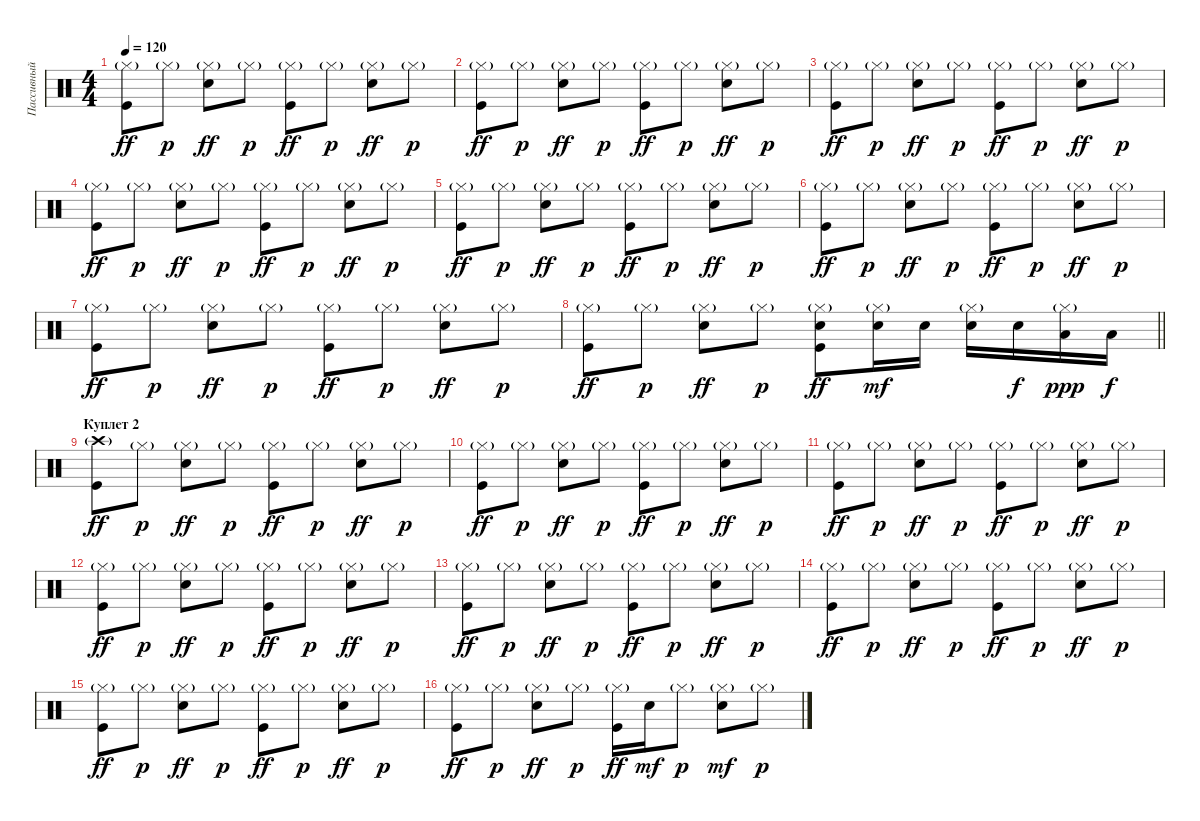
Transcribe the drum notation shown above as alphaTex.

\track ("Пассивный ударник" "Пассивный ") {instrument percussion}
\staff {score}
\articulation defaults
\ts (4 4)
\tempo 120
\clef neutral
\ks c
("Hi-Hat (closed)"{g} "Kick (hit)").8{dy ff} "Hi-Hat (closed)"{g}.8{dy p} ("Hi-Hat (closed)"{g} "Electric Snare (hit)").8{dy ff} "Hi-Hat (closed)"{g}.8{dy p} ("Hi-Hat (closed)"{g} "Kick (hit)").8{dy ff} "Hi-Hat (closed)"{g}.8{dy p} ("Hi-Hat (closed)"{g} "Electric Snare (hit)").8{dy ff} "Hi-Hat (closed)"{g}.8{dy p} |
("Hi-Hat (closed)"{g} "Kick (hit)").8{dy ff} "Hi-Hat (closed)"{g}.8{dy p} ("Hi-Hat (closed)"{g} "Electric Snare (hit)").8{dy ff} "Hi-Hat (closed)"{g}.8{dy p} ("Hi-Hat (closed)"{g} "Kick (hit)").8{dy ff} "Hi-Hat (closed)"{g}.8{dy p} ("Hi-Hat (closed)"{g} "Electric Snare (hit)").8{dy ff} "Hi-Hat (closed)"{g}.8{dy p} |
("Hi-Hat (closed)"{g} "Kick (hit)").8{dy ff} "Hi-Hat (closed)"{g}.8{dy p} ("Hi-Hat (closed)"{g} "Electric Snare (hit)").8{dy ff} "Hi-Hat (closed)"{g}.8{dy p} ("Hi-Hat (closed)"{g} "Kick (hit)").8{dy ff} "Hi-Hat (closed)"{g}.8{dy p} ("Hi-Hat (closed)"{g} "Electric Snare (hit)").8{dy ff} "Hi-Hat (closed)"{g}.8{dy p} |
("Hi-Hat (closed)"{g} "Kick (hit)").8{dy ff} "Hi-Hat (closed)"{g}.8{dy p} ("Hi-Hat (closed)"{g} "Electric Snare (hit)").8{dy ff} "Hi-Hat (closed)"{g}.8{dy p} ("Hi-Hat (closed)"{g} "Kick (hit)").8{dy ff} "Hi-Hat (closed)"{g}.8{dy p} ("Hi-Hat (closed)"{g} "Electric Snare (hit)").8{dy ff} "Hi-Hat (closed)"{g}.8{dy p} |
("Hi-Hat (closed)"{g} "Kick (hit)").8{dy ff} "Hi-Hat (closed)"{g}.8{dy p} ("Hi-Hat (closed)"{g} "Electric Snare (hit)").8{dy ff} "Hi-Hat (closed)"{g}.8{dy p} ("Hi-Hat (closed)"{g} "Kick (hit)").8{dy ff} "Hi-Hat (closed)"{g}.8{dy p} ("Hi-Hat (closed)"{g} "Electric Snare (hit)").8{dy ff} "Hi-Hat (closed)"{g}.8{dy p} |
("Hi-Hat (closed)"{g} "Kick (hit)").8{dy ff} "Hi-Hat (closed)"{g}.8{dy p} ("Hi-Hat (closed)"{g} "Electric Snare (hit)").8{dy ff} "Hi-Hat (closed)"{g}.8{dy p} ("Hi-Hat (closed)"{g} "Kick (hit)").8{dy ff} "Hi-Hat (closed)"{g}.8{dy p} ("Hi-Hat (closed)"{g} "Electric Snare (hit)").8{dy ff} "Hi-Hat (closed)"{g}.8{dy p} |
("Hi-Hat (closed)"{g} "Kick (hit)").8{dy ff} "Hi-Hat (closed)"{g}.8{dy p} ("Hi-Hat (closed)"{g} "Electric Snare (hit)").8{dy ff} "Hi-Hat (closed)"{g}.8{dy p} ("Hi-Hat (closed)"{g} "Kick (hit)").8{dy ff} "Hi-Hat (closed)"{g}.8{dy p} ("Hi-Hat (closed)"{g} "Electric Snare (hit)").8{dy ff} "Hi-Hat (closed)"{g}.8{dy p} |
\barLineRight lightlight
("Hi-Hat (closed)"{g} "Kick (hit)").8{dy ff} "Hi-Hat (closed)"{g}.8{dy p} ("Hi-Hat (closed)"{g} "Electric Snare (hit)").8{dy ff} "Hi-Hat (closed)"{g}.8{dy p} ("Hi-Hat (closed)"{g} "Electric Snare (hit)" "Kick (hit)").8{dy ff} ("Hi-Hat (closed)"{g} "Electric Snare (hit)").16{dy mf} "Electric Snare (hit)".16 ("Hi-Hat (closed)"{g} "Electric Snare (hit)").16 "Electric Snare (hit)".16{dy f} ("Hi-Hat (closed)"{g} "Low Tom (hit)").16{dy ppp} "Low Tom (hit)".16{dy f} |
\section ("" "Куплет 2")
("Crash high (hit)"{g} "Kick (hit)").8{dy ff} "Hi-Hat (closed)"{g}.8{dy p} ("Hi-Hat (closed)"{g} "Electric Snare (hit)").8{dy ff} "Hi-Hat (closed)"{g}.8{dy p} ("Hi-Hat (closed)"{g} "Kick (hit)").8{dy ff} "Hi-Hat (closed)"{g}.8{dy p} ("Hi-Hat (closed)"{g} "Electric Snare (hit)").8{dy ff} "Hi-Hat (closed)"{g}.8{dy p} |
("Hi-Hat (closed)"{g} "Kick (hit)").8{dy ff} "Hi-Hat (closed)"{g}.8{dy p} ("Hi-Hat (closed)"{g} "Electric Snare (hit)").8{dy ff} "Hi-Hat (closed)"{g}.8{dy p} ("Hi-Hat (closed)"{g} "Kick (hit)").8{dy ff} "Hi-Hat (closed)"{g}.8{dy p} ("Hi-Hat (closed)"{g} "Electric Snare (hit)").8{dy ff} "Hi-Hat (closed)"{g}.8{dy p} |
("Hi-Hat (closed)"{g} "Kick (hit)").8{dy ff} "Hi-Hat (closed)"{g}.8{dy p} ("Hi-Hat (closed)"{g} "Electric Snare (hit)").8{dy ff} "Hi-Hat (closed)"{g}.8{dy p} ("Hi-Hat (closed)"{g} "Kick (hit)").8{dy ff} "Hi-Hat (closed)"{g}.8{dy p} ("Hi-Hat (closed)"{g} "Electric Snare (hit)").8{dy ff} "Hi-Hat (closed)"{g}.8{dy p} |
("Hi-Hat (closed)"{g} "Kick (hit)").8{dy ff} "Hi-Hat (closed)"{g}.8{dy p} ("Hi-Hat (closed)"{g} "Electric Snare (hit)").8{dy ff} "Hi-Hat (closed)"{g}.8{dy p} ("Hi-Hat (closed)"{g} "Kick (hit)").8{dy ff} "Hi-Hat (closed)"{g}.8{dy p} ("Hi-Hat (closed)"{g} "Electric Snare (hit)").8{dy ff} "Hi-Hat (closed)"{g}.8{dy p} |
("Hi-Hat (closed)"{g} "Kick (hit)").8{dy ff} "Hi-Hat (closed)"{g}.8{dy p} ("Hi-Hat (closed)"{g} "Electric Snare (hit)").8{dy ff} "Hi-Hat (closed)"{g}.8{dy p} ("Hi-Hat (closed)"{g} "Kick (hit)").8{dy ff} "Hi-Hat (closed)"{g}.8{dy p} ("Hi-Hat (closed)"{g} "Electric Snare (hit)").8{dy ff} "Hi-Hat (closed)"{g}.8{dy p} |
("Hi-Hat (closed)"{g} "Kick (hit)").8{dy ff} "Hi-Hat (closed)"{g}.8{dy p} ("Hi-Hat (closed)"{g} "Electric Snare (hit)").8{dy ff} "Hi-Hat (closed)"{g}.8{dy p} ("Hi-Hat (closed)"{g} "Kick (hit)").8{dy ff} "Hi-Hat (closed)"{g}.8{dy p} ("Hi-Hat (closed)"{g} "Electric Snare (hit)").8{dy ff} "Hi-Hat (closed)"{g}.8{dy p} |
("Hi-Hat (closed)"{g} "Kick (hit)").8{dy ff} "Hi-Hat (closed)"{g}.8{dy p} ("Hi-Hat (closed)"{g} "Electric Snare (hit)").8{dy ff} "Hi-Hat (closed)"{g}.8{dy p} ("Hi-Hat (closed)"{g} "Kick (hit)").8{dy ff} "Hi-Hat (closed)"{g}.8{dy p} ("Hi-Hat (closed)"{g} "Electric Snare (hit)").8{dy ff} "Hi-Hat (closed)"{g}.8{dy p} |
("Hi-Hat (closed)"{g} "Kick (hit)").8{dy ff} "Hi-Hat (closed)"{g}.8{dy p} ("Hi-Hat (closed)"{g} "Electric Snare (hit)").8{dy ff} "Hi-Hat (closed)"{g}.8{dy p} ("Hi-Hat (closed)"{g} "Kick (hit)").16{dy ff} "Electric Snare (hit)".16{dy mf} "Hi-Hat (closed)"{g}.8{dy p} ("Hi-Hat (closed)"{g} "Electric Snare (hit)").8{dy mf} "Hi-Hat (closed)"{g}.8{dy p}
